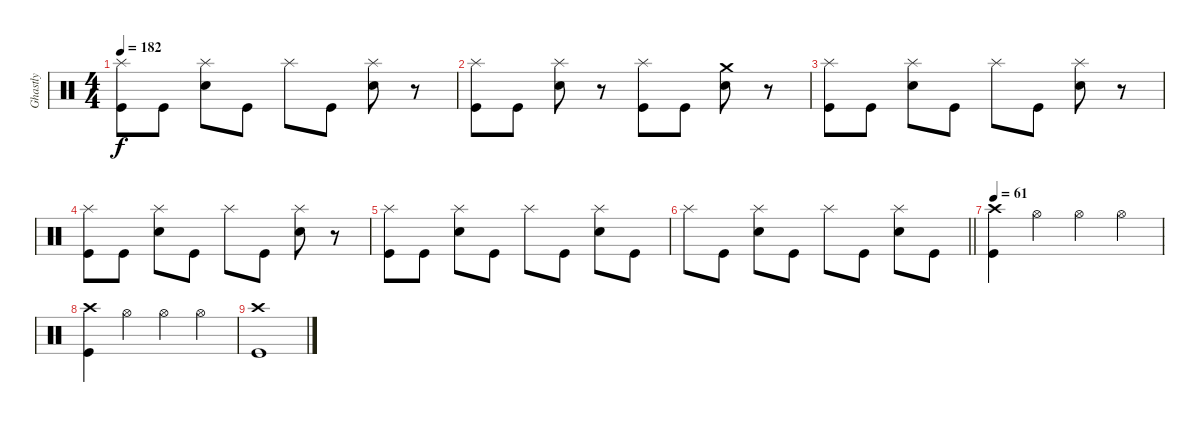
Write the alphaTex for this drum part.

\track ("Ghastly" "Ghastly") {instrument percussion}
\staff {score}
\articulation defaults
\ts (4 4)
\tempo 182
\clef neutral
\ks c
("Splash (hit)" "Kick (hit)").8{dy f} "Kick (hit)".8 ("Splash (hit)" "Electric Snare (hit)").8 "Kick (hit)".8 "Splash (hit)".8 "Kick (hit)".8 ("Splash (hit)" "Electric Snare (hit)").8 r.8 |
("Splash (hit)" "Kick (hit)").8 "Kick (hit)".8 ("Splash (hit)" "Electric Snare (hit)").8 r.8 ("Splash (hit)" "Kick (hit)").8 "Kick (hit)".8 ("Crash medium (hit)" "Electric Snare (hit)").8 r.8 |
("Splash (hit)" "Kick (hit)").8 "Kick (hit)".8 ("Splash (hit)" "Electric Snare (hit)").8 "Kick (hit)".8 "Splash (hit)".8 "Kick (hit)".8 ("Splash (hit)" "Electric Snare (hit)").8 r.8 |
("Splash (hit)" "Kick (hit)").8 "Kick (hit)".8 ("Splash (hit)" "Electric Snare (hit)").8 "Kick (hit)".8 "Splash (hit)".8 "Kick (hit)".8 ("Splash (hit)" "Electric Snare (hit)").8 r.8 |
("Splash (hit)" "Kick (hit)").8 "Kick (hit)".8 ("Splash (hit)" "Electric Snare (hit)").8 "Kick (hit)".8 "Splash (hit)".8 "Kick (hit)".8 ("Splash (hit)" "Electric Snare (hit)").8 "Kick (hit)".8 |
\barLineRight lightlight "Splash (hit)".8 "Kick (hit)".8
("Splash (hit)" "Electric Snare (hit)").8 "Kick (hit)".8 "Splash (hit)".8 "Kick (hit)".8 ("Splash (hit)" "Electric Snare (hit)").8 "Kick (hit)".8 |
\tempo 61
("Crash high (hit)" "Kick (hit)").4 "Hi-Hat (open)".4 "Hi-Hat (open)".4 "Hi-Hat (open)".4 |
("Crash high (hit)" "Kick (hit)").4 "Hi-Hat (open)".4 "Hi-Hat (open)".4 "Hi-Hat (open)".4 |
("Crash high (hit)" "Kick (hit)").1
